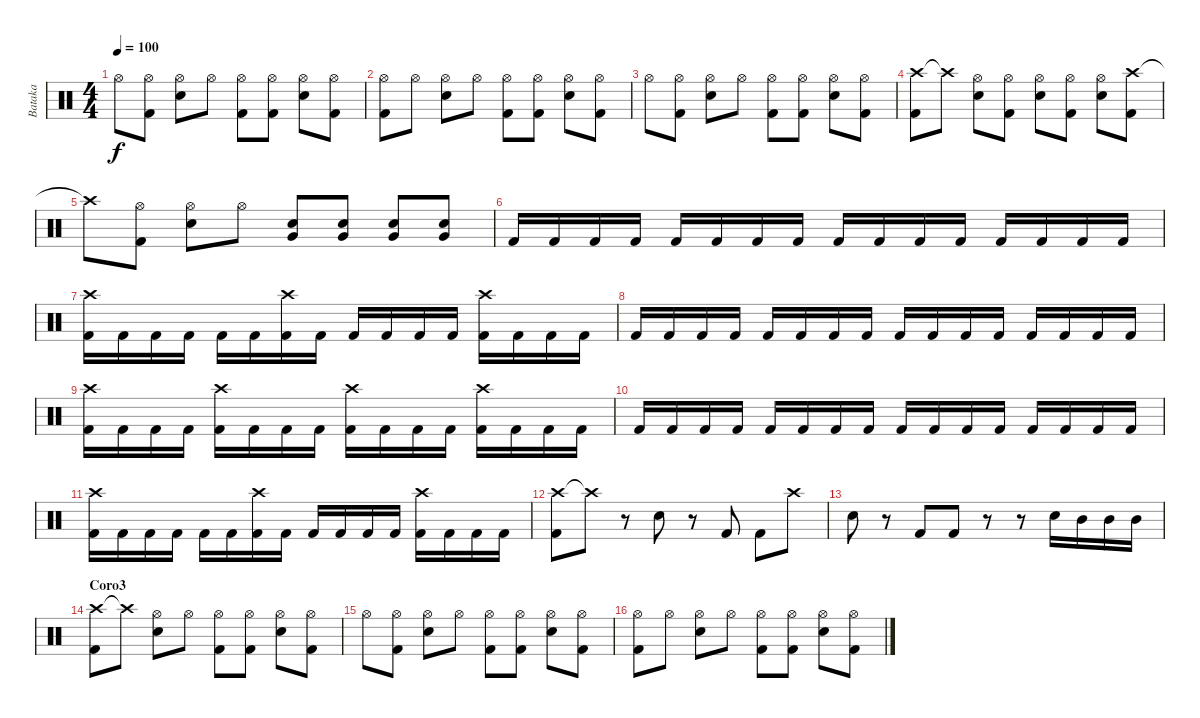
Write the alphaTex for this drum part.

\track ("Bataka" "Bataka") {instrument percussion}
\staff {score}
\articulation defaults
\ts (4 4)
\tempo 100
\clef neutral
\ks c "Hi-Hat (open)".8{dy f}
("Hi-Hat (open)" "Kick (hit) 2").8 ("Hi-Hat (open)" "Snare (hit) 2").8 "Hi-Hat (open)".8 ("Hi-Hat (open)" "Kick (hit) 2").8 ("Hi-Hat (open)" "Kick (hit) 2").8 ("Hi-Hat (open)" "Snare (hit) 2").8 ("Hi-Hat (open)" "Kick (hit) 2").8 |
("Hi-Hat (open)" "Kick (hit) 2").8 "Hi-Hat (open)".8 ("Hi-Hat (open)" "Snare (hit) 2").8 "Hi-Hat (open)".8 ("Hi-Hat (open)" "Kick (hit) 2").8 ("Hi-Hat (open)" "Kick (hit) 2").8 ("Hi-Hat (open)" "Snare (hit) 2").8 ("Hi-Hat (open)" "Kick (hit) 2").8 |
"Hi-Hat (open)".8 ("Hi-Hat (open)" "Kick (hit) 2").8 ("Hi-Hat (open)" "Snare (hit) 2").8 "Hi-Hat (open)".8 ("Hi-Hat (open)" "Kick (hit) 2").8 ("Hi-Hat (open)" "Kick (hit) 2").8 ("Hi-Hat (open)" "Snare (hit) 2").8 ("Hi-Hat (open)" "Kick (hit) 2").8 |
("Crash high (hit)" "Kick (hit) 2").8 "Crash high (hit)"{t}.8 ("Hi-Hat (open)" "Snare (hit) 2").8 ("Hi-Hat (open)" "Kick (hit) 2").8 ("Hi-Hat (open)" "Snare (hit) 2").8 ("Hi-Hat (open)" "Kick (hit) 2").8 ("Hi-Hat (open)" "Snare (hit) 2").8 ("Crash high (hit)" "Kick (hit) 2").8 |
"Crash high (hit)"{t}.8 ("Hi-Hat (open)" "Kick (hit) 2").8 ("Hi-Hat (open)" "Snare (hit) 2").8 "Hi-Hat (open)".8 ("Very Low Tom (hit)" "Snare (hit) 2").8 ("Very Low Tom (hit)" "Snare (hit) 2").8 ("Very Low Tom (hit)" "Snare (hit) 2").8 ("Very Low Tom (hit)" "Snare (hit) 2").8 |
"Kick (hit) 2".16 "Kick (hit) 2".16 "Kick (hit) 2".16 "Kick (hit) 2".16 "Kick (hit) 2".16 "Kick (hit) 2".16 "Kick (hit) 2".16 "Kick (hit) 2".16 "Kick (hit) 2".16 "Kick (hit) 2".16 "Kick (hit) 2".16 "Kick (hit) 2".16 "Kick (hit) 2".16 "Kick (hit) 2".16 "Kick (hit) 2".16 "Kick (hit) 2".16 |
("Crash high (hit)" "Kick (hit) 2").16 "Kick (hit) 2".16 "Kick (hit) 2".16 "Kick (hit) 2".16 "Kick (hit) 2".16 "Kick (hit) 2".16 ("Crash high (hit)" "Kick (hit) 2").16 "Kick (hit) 2".16 "Kick (hit) 2".16 "Kick (hit) 2".16 "Kick (hit) 2".16 "Kick (hit) 2".16 ("Crash high (hit)" "Kick (hit) 2").16 "Kick (hit) 2".16 "Kick (hit) 2".16 "Kick (hit) 2".16 |
"Kick (hit) 2".16 "Kick (hit) 2".16 "Kick (hit) 2".16 "Kick (hit) 2".16 "Kick (hit) 2".16 "Kick (hit) 2".16 "Kick (hit) 2".16 "Kick (hit) 2".16 "Kick (hit) 2".16 "Kick (hit) 2".16 "Kick (hit) 2".16 "Kick (hit) 2".16 "Kick (hit) 2".16 "Kick (hit) 2".16 "Kick (hit) 2".16 "Kick (hit) 2".16 |
("Crash high (hit)" "Kick (hit) 2").16 "Kick (hit) 2".16 "Kick (hit) 2".16 "Kick (hit) 2".16 ("Crash high (hit)" "Kick (hit) 2").16 "Kick (hit) 2".16 "Kick (hit) 2".16 "Kick (hit) 2".16 ("Crash high (hit)" "Kick (hit) 2").16 "Kick (hit) 2".16 "Kick (hit) 2".16 "Kick (hit) 2".16 ("Crash high (hit)" "Kick (hit) 2").16 "Kick (hit) 2".16 "Kick (hit) 2".16 "Kick (hit) 2".16 |
"Kick (hit) 2".16 "Kick (hit) 2".16 "Kick (hit) 2".16 "Kick (hit) 2".16 "Kick (hit) 2".16 "Kick (hit) 2".16 "Kick (hit) 2".16 "Kick (hit) 2".16 "Kick (hit) 2".16 "Kick (hit) 2".16 "Kick (hit) 2".16 "Kick (hit) 2".16 "Kick (hit) 2".16 "Kick (hit) 2".16 "Kick (hit) 2".16 "Kick (hit) 2".16 |
("Crash high (hit)" "Kick (hit) 2").16 "Kick (hit) 2".16 "Kick (hit) 2".16 "Kick (hit) 2".16 "Kick (hit) 2".16 "Kick (hit) 2".16 ("Crash high (hit)" "Kick (hit) 2").16 "Kick (hit) 2".16 "Kick (hit) 2".16 "Kick (hit) 2".16 "Kick (hit) 2".16 "Kick (hit) 2".16 ("Crash high (hit)" "Kick (hit) 2").16 "Kick (hit) 2".16 "Kick (hit) 2".16 "Kick (hit) 2".16 |
("Crash high (hit)" "Kick (hit) 2").8 "Crash high (hit)"{t}.8 r.8 "Snare (hit) 2".8 r.8 "Kick (hit) 2".8 "Kick (hit) 2".8 "Crash high (hit)".8 |
"Snare (hit) 2".8 r.8 "Kick (hit) 2".8 "Kick (hit) 2".8 r.8 r.8 "Snare (hit) 2".16 "Mid Tom (hit)".16 "Mid Tom (hit)".16 "Mid Tom (hit)".16 |
\section ("" "Coro3")
("Crash high (hit)" "Kick (hit) 2").8 "Crash high (hit)"{t}.8 ("Hi-Hat (open)" "Snare (hit) 2").8 "Hi-Hat (open)".8 ("Hi-Hat (open)" "Kick (hit) 2").8 ("Hi-Hat (open)" "Kick (hit) 2").8 ("Hi-Hat (open)" "Snare (hit) 2").8 ("Hi-Hat (open)" "Kick (hit) 2").8 |
"Hi-Hat (open)".8 ("Hi-Hat (open)" "Kick (hit) 2").8 ("Hi-Hat (open)" "Snare (hit) 2").8 "Hi-Hat (open)".8 ("Hi-Hat (open)" "Kick (hit) 2").8 ("Hi-Hat (open)" "Kick (hit) 2").8 ("Hi-Hat (open)" "Snare (hit) 2").8 ("Hi-Hat (open)" "Kick (hit) 2").8 |
("Hi-Hat (open)" "Kick (hit) 2").8 "Hi-Hat (open)".8 ("Hi-Hat (open)" "Snare (hit) 2").8 "Hi-Hat (open)".8 ("Hi-Hat (open)" "Kick (hit) 2").8 ("Hi-Hat (open)" "Kick (hit) 2").8 ("Hi-Hat (open)" "Snare (hit) 2").8 ("Hi-Hat (open)" "Kick (hit) 2").8
